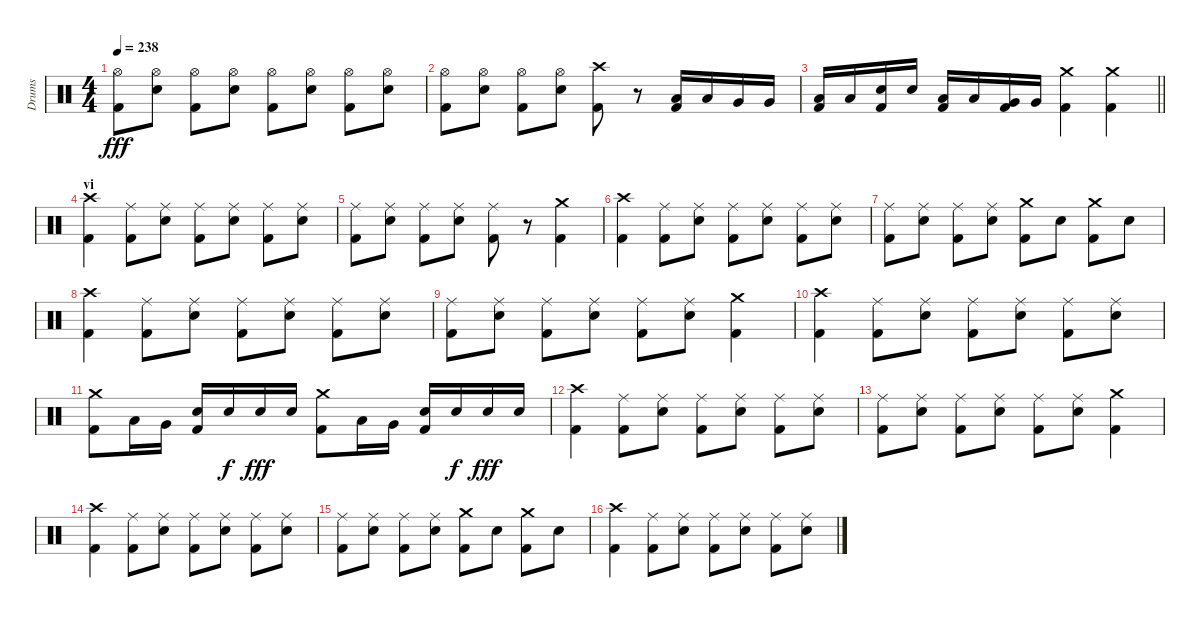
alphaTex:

\track ("Drums" "Drums") {instrument percussion}
\staff {score}
\articulation defaults
\ts (4 4)
\tempo 238
\clef neutral
\ks c
("Hi-Hat (open)" "Kick (hit) 2").8{dy fff} ("Hi-Hat (open)" "Electric Snare (hit)").8 ("Hi-Hat (open)" "Kick (hit) 2").8 ("Hi-Hat (open)" "Electric Snare (hit)").8 ("Hi-Hat (open)" "Kick (hit) 2").8 ("Hi-Hat (open)" "Electric Snare (hit)").8 ("Hi-Hat (open)" "Kick (hit) 2").8 ("Hi-Hat (open)" "Electric Snare (hit)").8 |
("Hi-Hat (open)" "Kick (hit) 2").8 ("Hi-Hat (open)" "Electric Snare (hit)").8 ("Hi-Hat (open)" "Kick (hit) 2").8 ("Hi-Hat (open)" "Electric Snare (hit)").8 ("Crash high (hit)" "Kick (hit) 2").8 r.8 ("Low Tom (hit)" "Kick (hit) 2").16 "Low Tom (hit)".16 "Very Low Tom (hit)".16 "Very Low Tom (hit)".16 |
\barLineRight lightlight
("Low Tom (hit)" "Kick (hit) 2").16 "Low Tom (hit)".16 ("Electric Snare (hit)" "Kick (hit) 2").16 "Electric Snare (hit)".16 ("Low Tom (hit)" "Kick (hit) 2").16 "Low Tom (hit)".16 ("Very Low Tom (hit)" "Kick (hit) 2").16 "Very Low Tom (hit)".16 ("Crash medium (hit)" "Kick (hit) 2").4 ("Crash medium (hit)" "Kick (hit) 2").4 |
\section ("" "vi")
("Crash high (hit)" "Kick (hit) 2").4 ("Ride (middle)" "Kick (hit) 2").8 ("Ride (middle)" "Electric Snare (hit)").8 ("Ride (middle)" "Kick (hit) 2").8 ("Ride (middle)" "Electric Snare (hit)").8 ("Ride (middle)" "Kick (hit) 2").8 ("Ride (middle)" "Electric Snare (hit)").8 |
("Ride (middle)" "Kick (hit) 2").8 ("Ride (middle)" "Electric Snare (hit)").8 ("Ride (middle)" "Kick (hit) 2").8 ("Ride (middle)" "Electric Snare (hit)").8 ("Ride (middle)" "Kick (hit) 2").8 r.8 ("Crash medium (hit)" "Kick (hit) 2").4 |
("Crash high (hit)" "Kick (hit) 2").4 ("Ride (middle)" "Kick (hit) 2").8 ("Ride (middle)" "Electric Snare (hit)").8 ("Ride (middle)" "Kick (hit) 2").8 ("Ride (middle)" "Electric Snare (hit)").8 ("Ride (middle)" "Kick (hit) 2").8 ("Ride (middle)" "Electric Snare (hit)").8 |
("Ride (middle)" "Kick (hit) 2").8 ("Ride (middle)" "Electric Snare (hit)").8 ("Ride (middle)" "Kick (hit) 2").8 ("Ride (middle)" "Electric Snare (hit)").8 ("Crash medium (hit)" "Kick (hit) 2").8 "Electric Snare (hit)".8 ("Crash medium (hit)" "Kick (hit) 2").8 "Electric Snare (hit)".8 |
("Crash high (hit)" "Kick (hit) 2").4 ("Ride (middle)" "Kick (hit) 2").8 ("Ride (middle)" "Electric Snare (hit)").8 ("Ride (middle)" "Kick (hit) 2").8 ("Ride (middle)" "Electric Snare (hit)").8 ("Ride (middle)" "Kick (hit) 2").8 ("Ride (middle)" "Electric Snare (hit)").8 |
("Ride (middle)" "Kick (hit) 2").8 ("Ride (middle)" "Electric Snare (hit)").8 ("Ride (middle)" "Kick (hit) 2").8 ("Ride (middle)" "Electric Snare (hit)").8 ("Ride (middle)" "Kick (hit) 2").8 ("Ride (middle)" "Electric Snare (hit)").8 ("Crash medium (hit)" "Kick (hit) 2").4 |
("Crash high (hit)" "Kick (hit) 2").4 ("Ride (middle)" "Kick (hit) 2").8 ("Ride (middle)" "Electric Snare (hit)").8 ("Ride (middle)" "Kick (hit) 2").8 ("Ride (middle)" "Electric Snare (hit)").8 ("Ride (middle)" "Kick (hit) 2").8 ("Ride (middle)" "Electric Snare (hit)").8 |
("Crash medium (hit)" "Kick (hit) 2").8 "Low Tom (hit)".16 "Very Low Tom (hit)".16 ("Electric Snare (hit)" "Kick (hit) 2").16 "Electric Snare (hit)".16{dy f} "Electric Snare (hit)".16{dy fff} "Electric Snare (hit)".16 ("Crash medium (hit)" "Kick (hit) 2").8 "Low Tom (hit)".16 "Very Low Tom (hit)".16 ("Electric Snare (hit)" "Kick (hit) 2").16 "Electric Snare (hit)".16{dy f} "Electric Snare (hit)".16{dy fff} "Electric Snare (hit)".16 |
("Crash high (hit)" "Kick (hit) 2").4 ("Ride (middle)" "Kick (hit) 2").8 ("Ride (middle)" "Electric Snare (hit)").8 ("Ride (middle)" "Kick (hit) 2").8 ("Ride (middle)" "Electric Snare (hit)").8 ("Ride (middle)" "Kick (hit) 2").8 ("Ride (middle)" "Electric Snare (hit)").8 |
("Ride (middle)" "Kick (hit) 2").8 ("Ride (middle)" "Electric Snare (hit)").8 ("Ride (middle)" "Kick (hit) 2").8 ("Ride (middle)" "Electric Snare (hit)").8 ("Ride (middle)" "Kick (hit) 2").8 ("Ride (middle)" "Electric Snare (hit)").8 ("Crash medium (hit)" "Kick (hit) 2").4 |
("Crash high (hit)" "Kick (hit) 2").4 ("Ride (middle)" "Kick (hit) 2").8 ("Ride (middle)" "Electric Snare (hit)").8 ("Ride (middle)" "Kick (hit) 2").8 ("Ride (middle)" "Electric Snare (hit)").8 ("Ride (middle)" "Kick (hit) 2").8 ("Ride (middle)" "Electric Snare (hit)").8 |
("Ride (middle)" "Kick (hit) 2").8 ("Ride (middle)" "Electric Snare (hit)").8 ("Ride (middle)" "Kick (hit) 2").8 ("Ride (middle)" "Electric Snare (hit)").8 ("Crash medium (hit)" "Kick (hit) 2").8 "Electric Snare (hit)".8 ("Crash medium (hit)" "Kick (hit) 2").8 "Electric Snare (hit)".8 |
("Crash high (hit)" "Kick (hit) 2").4 ("Ride (middle)" "Kick (hit) 2").8 ("Ride (middle)" "Electric Snare (hit)").8 ("Ride (middle)" "Kick (hit) 2").8 ("Ride (middle)" "Electric Snare (hit)").8 ("Ride (middle)" "Kick (hit) 2").8 ("Ride (middle)" "Electric Snare (hit)").8
